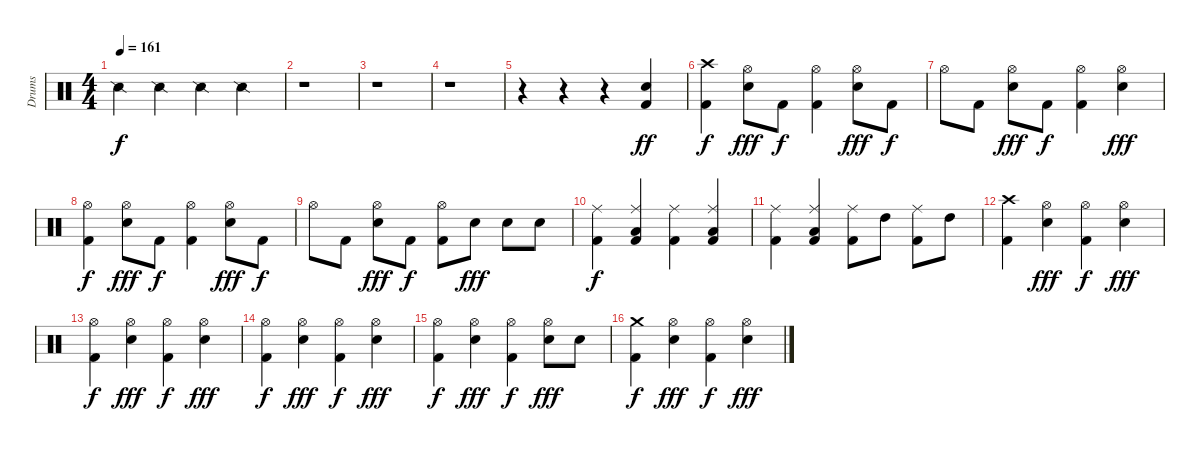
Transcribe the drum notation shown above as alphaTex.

\track ("Drums" "Drums") {instrument percussion}
\staff {score}
\articulation defaults
\ts (4 4)
\tempo 161
\clef neutral
\ks c "Snare (side stick) 2".4{dy f} "Snare (side stick) 2".4 "Snare (side stick) 2".4 "Snare (side stick) 2".4
|
r.1 |
r.1 |
r.1 |
r.4 r.4 r.4 ("Electric Snare (hit)" "Kick (hit) 2").4{dy ff volume 16} |
("Crash high (hit)" "Kick (hit) 2").4{dy f} ("Hi-Hat (open)" "Electric Snare (hit)").8{dy fff} "Kick (hit) 2".8{dy f} ("Hi-Hat (open)" "Kick (hit) 2").4 ("Hi-Hat (open)" "Electric Snare (hit)").8{dy fff} "Kick (hit) 2".8{dy f} |
"Hi-Hat (open)".8 "Kick (hit) 2".8 ("Hi-Hat (open)" "Electric Snare (hit)").8{dy fff} "Kick (hit) 2".8{dy f} ("Hi-Hat (open)" "Kick (hit) 2").4 ("Hi-Hat (open)" "Electric Snare (hit)").4{dy fff} |
("Hi-Hat (open)" "Kick (hit) 2").4{dy f} ("Hi-Hat (open)" "Electric Snare (hit)").8{dy fff} "Kick (hit) 2".8{dy f} ("Hi-Hat (open)" "Kick (hit) 2").4 ("Hi-Hat (open)" "Electric Snare (hit)").8{dy fff} "Kick (hit) 2".8{dy f} |
"Hi-Hat (open)".8 "Kick (hit) 2".8 ("Hi-Hat (open)" "Electric Snare (hit)").8{dy fff} "Kick (hit) 2".8{dy f} ("Hi-Hat (open)" "Kick (hit) 2").8 "Electric Snare (hit)".8{dy fff} "Electric Snare (hit)".8 "Electric Snare (hit)".8 |
("Ride (middle)" "Kick (hit) 2").4{dy f} ("Ride (middle)" "Low Tom (hit)" "Kick (hit) 2").4 ("Ride (middle)" "Kick (hit) 2").4 ("Ride (middle)" "Low Tom (hit)" "Kick (hit) 2").4 |
("Ride (middle)" "Kick (hit) 2").4 ("Ride (middle)" "Low Tom (hit)" "Kick (hit) 2").4 ("Ride (middle)" "Kick (hit) 2").8 "High Tom (hit)".8 ("Ride (middle)" "Kick (hit) 2").8 "High Tom (hit)".8 |
("Crash high (hit)" "Kick (hit) 2").4 ("Hi-Hat (open)" "Electric Snare (hit)").4{dy fff} ("Hi-Hat (open)" "Kick (hit) 2").4{dy f} ("Hi-Hat (open)" "Electric Snare (hit)").4{dy fff} |
("Hi-Hat (open)" "Kick (hit) 2").4{dy f} ("Hi-Hat (open)" "Electric Snare (hit)").4{dy fff} ("Hi-Hat (open)" "Kick (hit) 2").4{dy f} ("Hi-Hat (open)" "Electric Snare (hit)").4{dy fff} |
("Hi-Hat (open)" "Kick (hit) 2").4{dy f} ("Hi-Hat (open)" "Electric Snare (hit)").4{dy fff} ("Hi-Hat (open)" "Kick (hit) 2").4{dy f} ("Hi-Hat (open)" "Electric Snare (hit)").4{dy fff} |
("Hi-Hat (open)" "Kick (hit) 2").4{dy f} ("Hi-Hat (open)" "Electric Snare (hit)").4{dy fff} ("Hi-Hat (open)" "Kick (hit) 2").4{dy f} ("Hi-Hat (open)" "Electric Snare (hit)").8{dy fff} "Electric Snare (hit)".8 |
("Crash medium (hit)" "Kick (hit) 2").4{dy f} ("Hi-Hat (open)" "Electric Snare (hit)").4{dy fff} ("Hi-Hat (open)" "Kick (hit) 2").4{dy f} ("Hi-Hat (open)" "Electric Snare (hit)").4{dy fff}
